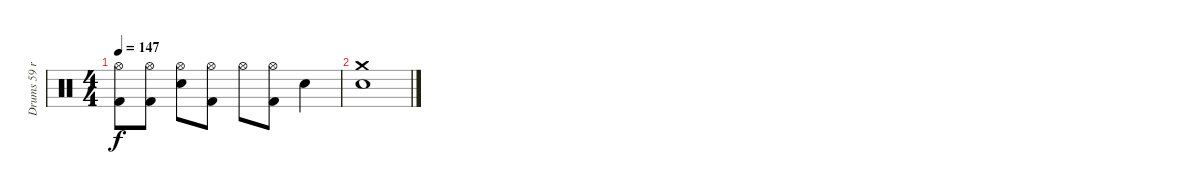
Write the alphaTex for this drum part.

\track ("Drums 59 ride" "Drums 59 r") {mute instrument percussion}
\staff {score}
\articulation defaults
\ts (4 4)
\tempo 147
\clef neutral
\ks c
("Hi-Hat (open)" "Kick (hit) 2").8{dy f} ("Hi-Hat (open)" "Kick (hit) 2").8 ("Hi-Hat (open)" "Snare (hit) 2").8 ("Hi-Hat (open)" "Kick (hit) 2").8 "Hi-Hat (open)".8 ("Hi-Hat (open)" "Kick (hit) 2").8 "Snare (hit) 2".4 |
("Crash medium (hit)" "Snare (hit) 2").1
